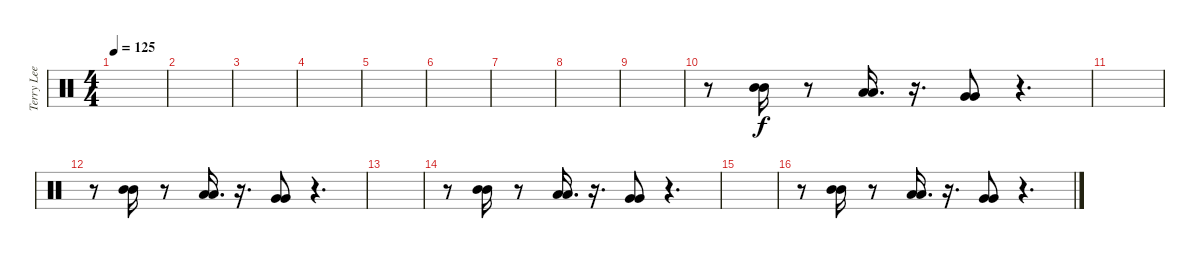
\track ("Terry Lee Miall" "Terry Lee ") {instrument percussion}
\staff {score}
\articulation defaults
\ts (4 4)
\tempo 125
\clef neutral
\ks c
|
|
|
|
|
|
|
|
|
r.8 ("Mid Tom (hit)" "Mid Tom (hit)").16 r.8 ("Low Tom (hit)" "Low Tom (hit)").16{d} r.16{d} ("Very Low Tom (hit)" "Very Low Tom (hit)").8 r.4{d} |
|
r.8 ("Mid Tom (hit)" "Mid Tom (hit)").16 r.8 ("Low Tom (hit)" "Low Tom (hit)").16{d} r.16{d} ("Very Low Tom (hit)" "Very Low Tom (hit)").8 r.4{d} |
|
r.8 ("Mid Tom (hit)" "Mid Tom (hit)").16 r.8 ("Low Tom (hit)" "Low Tom (hit)").16{d} r.16{d} ("Very Low Tom (hit)" "Very Low Tom (hit)").8 r.4{d} |
|
r.8 ("Mid Tom (hit)" "Mid Tom (hit)").16 r.8 ("Low Tom (hit)" "Low Tom (hit)").16{d} r.16{d} ("Very Low Tom (hit)" "Very Low Tom (hit)").8 r.4{d}
